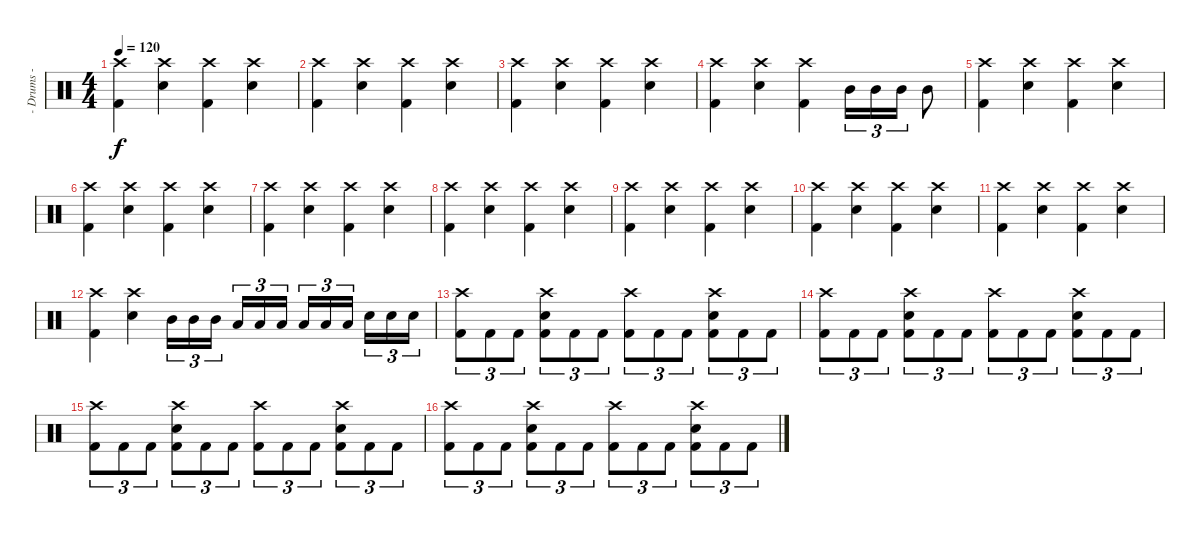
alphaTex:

\track ("- Drums -" "- Drums -") {instrument percussion}
\staff {score}
\articulation defaults
\ts (4 4)
\tempo 120
\clef neutral
\ks c
("Crash high (hit)" "Kick (hit) 2").4{dy f} ("Crash high (hit)" "Electric Snare (hit)").4 ("Crash high (hit)" "Kick (hit) 2").4 ("Crash high (hit)" "Electric Snare (hit)").4 |
("Crash high (hit)" "Kick (hit) 2").4 ("Crash high (hit)" "Electric Snare (hit)").4 ("Crash high (hit)" "Kick (hit) 2").4 ("Crash high (hit)" "Electric Snare (hit)").4 |
("Crash high (hit)" "Kick (hit) 2").4 ("Crash high (hit)" "Electric Snare (hit)").4 ("Crash high (hit)" "Kick (hit) 2").4 ("Crash high (hit)" "Electric Snare (hit)").4 |
("Crash high (hit)" "Kick (hit) 2").4 ("Crash high (hit)" "Electric Snare (hit)").4 ("Crash high (hit)" "Kick (hit) 2").4 "Mid Tom (hit)".16{tu (3 2)} "Mid Tom (hit)".16{tu (3 2)} "Mid Tom (hit)".16{tu (3 2)} "Mid Tom (hit)".8 |
("Crash high (hit)" "Kick (hit) 2").4 ("Crash high (hit)" "Electric Snare (hit)").4 ("Crash high (hit)" "Kick (hit) 2").4 ("Crash high (hit)" "Electric Snare (hit)").4 |
("Crash high (hit)" "Kick (hit) 2").4 ("Crash high (hit)" "Electric Snare (hit)").4 ("Crash high (hit)" "Kick (hit) 2").4 ("Crash high (hit)" "Electric Snare (hit)").4 |
("Crash high (hit)" "Kick (hit) 2").4 ("Crash high (hit)" "Electric Snare (hit)").4 ("Crash high (hit)" "Kick (hit) 2").4 ("Crash high (hit)" "Electric Snare (hit)").4 |
("Crash high (hit)" "Kick (hit) 2").4 ("Crash high (hit)" "Electric Snare (hit)").4 ("Crash high (hit)" "Kick (hit) 2").4 ("Crash high (hit)" "Electric Snare (hit)").4 |
("Crash high (hit)" "Kick (hit) 2").4 ("Crash high (hit)" "Electric Snare (hit)").4 ("Crash high (hit)" "Kick (hit) 2").4 ("Crash high (hit)" "Electric Snare (hit)").4 |
("Crash high (hit)" "Kick (hit) 2").4 ("Crash high (hit)" "Electric Snare (hit)").4 ("Crash high (hit)" "Kick (hit) 2").4 ("Crash high (hit)" "Electric Snare (hit)").4 |
("Crash high (hit)" "Kick (hit) 2").4 ("Crash high (hit)" "Electric Snare (hit)").4 ("Crash high (hit)" "Kick (hit) 2").4 ("Crash high (hit)" "Electric Snare (hit)").4 |
("Crash high (hit)" "Kick (hit) 2").4 ("Crash high (hit)" "Electric Snare (hit)").4 "Mid Tom (hit)".16{tu (3 2)} "Mid Tom (hit)".16{tu (3 2)} "Mid Tom (hit)".16{tu (3 2)} "Low Tom (hit)".16{tu (3 2)} "Low Tom (hit)".16{tu (3 2)} "Low Tom (hit)".16{tu (3 2)} "Low Floor Tom (hit)".16{tu (3 2)} "Low Floor Tom (hit)".16{tu (3 2)} "Low Floor Tom (hit)".16{tu (3 2)} "Electric Snare (hit)".16{tu (3 2)} "Electric Snare (hit)".16{tu (3 2)} "Electric Snare (hit)".16{tu (3 2)} |
("Crash high (hit)" "Kick (hit) 2").8{tu (3 2)} "Kick (hit) 2".8{tu (3 2)} "Kick (hit) 2".8{tu (3 2)} ("Crash high (hit)" "Electric Snare (hit)" "Kick (hit) 2").8{tu (3 2)} "Kick (hit) 2".8{tu (3 2)} "Kick (hit) 2".8{tu (3 2)} ("Crash high (hit)" "Kick (hit) 2").8{tu (3 2)} "Kick (hit) 2".8{tu (3 2)} "Kick (hit) 2".8{tu (3 2)} ("Crash high (hit)" "Electric Snare (hit)" "Kick (hit) 2").8{tu (3 2)} "Kick (hit) 2".8{tu (3 2)} "Kick (hit) 2".8{tu (3 2)} |
("Crash high (hit)" "Kick (hit) 2").8{tu (3 2)} "Kick (hit) 2".8{tu (3 2)} "Kick (hit) 2".8{tu (3 2)} ("Crash high (hit)" "Electric Snare (hit)" "Kick (hit) 2").8{tu (3 2)} "Kick (hit) 2".8{tu (3 2)} "Kick (hit) 2".8{tu (3 2)} ("Crash high (hit)" "Kick (hit) 2").8{tu (3 2)} "Kick (hit) 2".8{tu (3 2)} "Kick (hit) 2".8{tu (3 2)} ("Crash high (hit)" "Electric Snare (hit)" "Kick (hit) 2").8{tu (3 2)} "Kick (hit) 2".8{tu (3 2)} "Kick (hit) 2".8{tu (3 2)} |
("Crash high (hit)" "Kick (hit) 2").8{tu (3 2)} "Kick (hit) 2".8{tu (3 2)} "Kick (hit) 2".8{tu (3 2)} ("Crash high (hit)" "Electric Snare (hit)" "Kick (hit) 2").8{tu (3 2)} "Kick (hit) 2".8{tu (3 2)} "Kick (hit) 2".8{tu (3 2)} ("Crash high (hit)" "Kick (hit) 2").8{tu (3 2)} "Kick (hit) 2".8{tu (3 2)} "Kick (hit) 2".8{tu (3 2)} ("Crash high (hit)" "Electric Snare (hit)" "Kick (hit) 2").8{tu (3 2)} "Kick (hit) 2".8{tu (3 2)} "Kick (hit) 2".8{tu (3 2)} |
("Crash high (hit)" "Kick (hit) 2").8{tu (3 2)} "Kick (hit) 2".8{tu (3 2)} "Kick (hit) 2".8{tu (3 2)} ("Crash high (hit)" "Electric Snare (hit)" "Kick (hit) 2").8{tu (3 2)} "Kick (hit) 2".8{tu (3 2)} "Kick (hit) 2".8{tu (3 2)} ("Crash high (hit)" "Kick (hit) 2").8{tu (3 2)} "Kick (hit) 2".8{tu (3 2)} "Kick (hit) 2".8{tu (3 2)} ("Crash high (hit)" "Electric Snare (hit)" "Kick (hit) 2").8{tu (3 2)} "Kick (hit) 2".8{tu (3 2)} "Kick (hit) 2".8{tu (3 2)}
